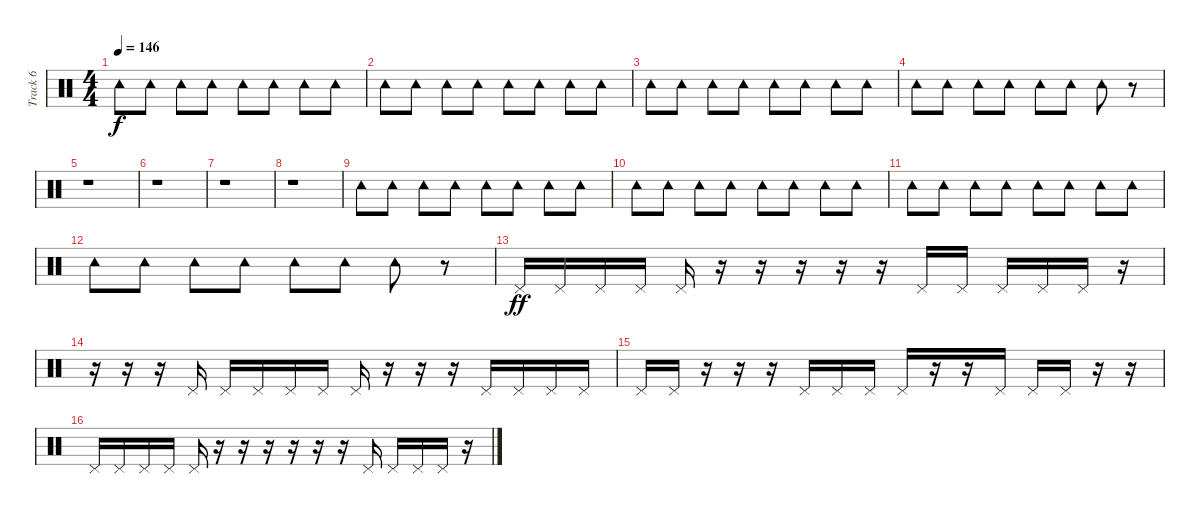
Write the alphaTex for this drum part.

\track ("Track 6" "Track 6") {instrument percussion}
\staff {score}
\articulation defaults
\ts (4 4)
\tempo 146
\clef neutral
\ks c "Tambourine (hit)".8{dy f} "Tambourine (hit)".8 "Tambourine (hit)".8 "Tambourine (hit)".8 "Tambourine (hit)".8 "Tambourine (hit)".8 "Tambourine (hit)".8 "Tambourine (hit)".8
|
"Tambourine (hit)".8 "Tambourine (hit)".8 "Tambourine (hit)".8 "Tambourine (hit)".8 "Tambourine (hit)".8 "Tambourine (hit)".8 "Tambourine (hit)".8 "Tambourine (hit)".8 |
"Tambourine (hit)".8 "Tambourine (hit)".8 "Tambourine (hit)".8 "Tambourine (hit)".8 "Tambourine (hit)".8 "Tambourine (hit)".8 "Tambourine (hit)".8 "Tambourine (hit)".8 |
"Tambourine (hit)".8 "Tambourine (hit)".8 "Tambourine (hit)".8 "Tambourine (hit)".8 "Tambourine (hit)".8 "Tambourine (hit)".8 "Tambourine (hit)".8 r.8 |
r.1 |
r.1 |
r.1 |
r.1 |
"Tambourine (hit)".8 "Tambourine (hit)".8 "Tambourine (hit)".8 "Tambourine (hit)".8 "Tambourine (hit)".8 "Tambourine (hit)".8 "Tambourine (hit)".8 "Tambourine (hit)".8 |
"Tambourine (hit)".8 "Tambourine (hit)".8 "Tambourine (hit)".8 "Tambourine (hit)".8 "Tambourine (hit)".8 "Tambourine (hit)".8 "Tambourine (hit)".8 "Tambourine (hit)".8 |
"Tambourine (hit)".8 "Tambourine (hit)".8 "Tambourine (hit)".8 "Tambourine (hit)".8 "Tambourine (hit)".8 "Tambourine (hit)".8 "Tambourine (hit)".8 "Tambourine (hit)".8 |
"Tambourine (hit)".8 "Tambourine (hit)".8 "Tambourine (hit)".8 "Tambourine (hit)".8 "Tambourine (hit)".8 "Tambourine (hit)".8 "Tambourine (hit)".8 r.8 |
"Pedal Hi-Hat (hit)".16{dy ff} "Pedal Hi-Hat (hit)".16 "Pedal Hi-Hat (hit)".16 "Pedal Hi-Hat (hit)".16 "Pedal Hi-Hat (hit)".16 r.16 r.16 r.16 r.16 r.16 "Pedal Hi-Hat (hit)".16 "Pedal Hi-Hat (hit)".16 "Pedal Hi-Hat (hit)".16 "Pedal Hi-Hat (hit)".16 "Pedal Hi-Hat (hit)".16 r.16 |
r.16 r.16 r.16 "Pedal Hi-Hat (hit)".16 "Pedal Hi-Hat (hit)".16 "Pedal Hi-Hat (hit)".16 "Pedal Hi-Hat (hit)".16 "Pedal Hi-Hat (hit)".16 "Pedal Hi-Hat (hit)".16 r.16 r.16 r.16 "Pedal Hi-Hat (hit)".16 "Pedal Hi-Hat (hit)".16 "Pedal Hi-Hat (hit)".16 "Pedal Hi-Hat (hit)".16 |
"Pedal Hi-Hat (hit)".16 "Pedal Hi-Hat (hit)".16 r.16 r.16 r.16 "Pedal Hi-Hat (hit)".16 "Pedal Hi-Hat (hit)".16 "Pedal Hi-Hat (hit)".16 "Pedal Hi-Hat (hit)".16 r.16 r.16 "Pedal Hi-Hat (hit)".16 "Pedal Hi-Hat (hit)".16 "Pedal Hi-Hat (hit)".16 r.16 r.16 |
"Pedal Hi-Hat (hit)".16 "Pedal Hi-Hat (hit)".16 "Pedal Hi-Hat (hit)".16 "Pedal Hi-Hat (hit)".16 "Pedal Hi-Hat (hit)".16 r.16 r.16 r.16 r.16 r.16 r.16 "Pedal Hi-Hat (hit)".16 "Pedal Hi-Hat (hit)".16 "Pedal Hi-Hat (hit)".16 "Pedal Hi-Hat (hit)".16 r.16
